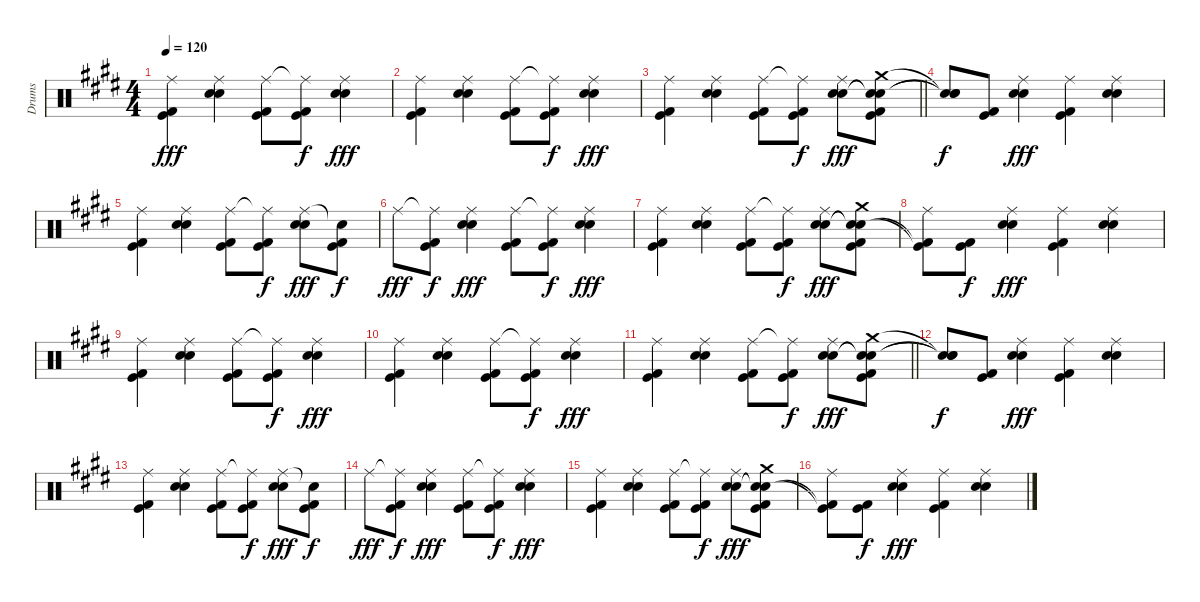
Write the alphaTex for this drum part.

\track ("Drums" "Drums") {instrument percussion}
\staff {score}
\articulation defaults
\ts (4 4)
\tempo 120
\clef neutral
\ks e
("Ride (middle)" "Kick (hit)" "Kick (hit) 2").4{dy fff} ("Ride (middle)" "Electric Snare (hit)" "Snare (hit) 2").4 ("Ride (middle)" "Kick (hit)" "Kick (hit) 2").8 ("Ride (middle)"{t} "Kick (hit)" "Kick (hit) 2").8{dy f} ("Ride (middle)" "Electric Snare (hit)" "Snare (hit) 2").4{dy fff} |
("Ride (middle)" "Kick (hit)" "Kick (hit) 2").4 ("Ride (middle)" "Electric Snare (hit)" "Snare (hit) 2").4 ("Ride (middle)" "Kick (hit)" "Kick (hit) 2").8 ("Ride (middle)"{t} "Kick (hit)" "Kick (hit) 2").8{dy f} ("Ride (middle)" "Electric Snare (hit)" "Snare (hit) 2").4{dy fff} |
\barLineRight lightlight
("Ride (middle)" "Kick (hit)" "Kick (hit) 2").4 ("Ride (middle)" "Electric Snare (hit)" "Snare (hit) 2").4 ("Ride (middle)" "Kick (hit)" "Kick (hit) 2").8 ("Ride (middle)"{t} "Kick (hit)" "Kick (hit) 2").8{dy f} ("Ride (middle)" "Electric Snare (hit)" "Snare (hit) 2").8{dy fff} ("Crash medium (hit)" "Snare (hit)"{t} "Snare (hit)"{t} "Kick (hit)" "Kick (hit) 2").8 |
("Snare (hit)"{t} "Snare (hit)"{t} "Snare (hit)"{t}).8{dy f volume 11} ("Kick (hit)" "Kick (hit) 2").8 ("Ride (middle)" "Electric Snare (hit)" "Snare (hit) 2").4{dy fff} ("Ride (middle)" "Kick (hit)" "Kick (hit) 2").4 ("Ride (middle)" "Electric Snare (hit)" "Snare (hit) 2").4 |
("Ride (middle)" "Kick (hit)" "Kick (hit) 2").4{volume 10} ("Ride (middle)" "Electric Snare (hit)" "Snare (hit) 2").4 ("Ride (middle)" "Kick (hit)" "Kick (hit) 2").8 ("Ride (middle)"{t} "Kick (hit)" "Kick (hit) 2").8{dy f} ("Ride (middle)" "Electric Snare (hit)" "Snare (hit) 2").8{dy fff} ("Snare (hit)"{t} "Kick (hit)" "Kick (hit) 2").8{dy f} |
"Ride (middle)".8{dy fff volume 9} ("Ride (middle)"{t} "Kick (hit)" "Kick (hit) 2").8{dy f} ("Ride (middle)" "Electric Snare (hit)" "Snare (hit) 2").4{dy fff} ("Ride (middle)" "Kick (hit)" "Kick (hit) 2").8 ("Ride (middle)"{t} "Kick (hit)" "Kick (hit) 2").8{dy f} ("Ride (middle)" "Electric Snare (hit)" "Snare (hit) 2").4{dy fff} |
("Ride (middle)" "Kick (hit)" "Kick (hit) 2").4{volume 8} ("Ride (middle)" "Electric Snare (hit)" "Snare (hit) 2").4 ("Ride (middle)" "Kick (hit)" "Kick (hit) 2").8 ("Ride (middle)"{t} "Kick (hit)" "Kick (hit) 2").8{dy f} ("Ride (middle)" "Electric Snare (hit)" "Snare (hit) 2").8{dy fff} ("Crash medium (hit)" "Snare (hit)"{t} "Snare (hit)"{t} "Kick (hit)" "Kick (hit) 2").8 |
("Ride (middle)" "Kick (hit)"{t} "Kick (hit) 2"{t}).8{volume 7} ("Kick (hit)" "Kick (hit) 2").8{dy f} ("Ride (middle)" "Electric Snare (hit)" "Snare (hit) 2").4{dy fff} ("Ride (middle)" "Kick (hit)" "Kick (hit) 2").4 ("Ride (middle)" "Electric Snare (hit)" "Snare (hit) 2").4 |
("Ride (middle)" "Kick (hit)" "Kick (hit) 2").4{volume 6} ("Ride (middle)" "Electric Snare (hit)" "Snare (hit) 2").4 ("Ride (middle)" "Kick (hit)" "Kick (hit) 2").8 ("Ride (middle)"{t} "Kick (hit)" "Kick (hit) 2").8{dy f} ("Ride (middle)" "Electric Snare (hit)" "Snare (hit) 2").4{dy fff} |
("Ride (middle)" "Kick (hit)" "Kick (hit) 2").4{volume 5} ("Ride (middle)" "Electric Snare (hit)" "Snare (hit) 2").4 ("Ride (middle)" "Kick (hit)" "Kick (hit) 2").8 ("Ride (middle)"{t} "Kick (hit)" "Kick (hit) 2").8{dy f} ("Ride (middle)" "Electric Snare (hit)" "Snare (hit) 2").4{dy fff} |
\barLineRight lightlight
("Ride (middle)" "Kick (hit)" "Kick (hit) 2").4{volume 4} ("Ride (middle)" "Electric Snare (hit)" "Snare (hit) 2").4 ("Ride (middle)" "Kick (hit)" "Kick (hit) 2").8 ("Ride (middle)"{t} "Kick (hit)" "Kick (hit) 2").8{dy f} ("Ride (middle)" "Electric Snare (hit)" "Snare (hit) 2").8{dy fff} ("Crash medium (hit)" "Snare (hit)"{t} "Snare (hit)"{t} "Kick (hit)" "Kick (hit) 2").8 |
("Snare (hit)"{t} "Snare (hit)"{t} "Snare (hit)"{t}).8{dy f volume 3} ("Kick (hit)" "Kick (hit) 2").8 ("Ride (middle)" "Electric Snare (hit)" "Snare (hit) 2").4{dy fff} ("Ride (middle)" "Kick (hit)" "Kick (hit) 2").4 ("Ride (middle)" "Electric Snare (hit)" "Snare (hit) 2").4 |
("Ride (middle)" "Kick (hit)" "Kick (hit) 2").4 ("Ride (middle)" "Electric Snare (hit)" "Snare (hit) 2").4 ("Ride (middle)" "Kick (hit)" "Kick (hit) 2").8 ("Ride (middle)"{t} "Kick (hit)" "Kick (hit) 2").8{dy f} ("Ride (middle)" "Electric Snare (hit)" "Snare (hit) 2").8{dy fff} ("Snare (hit)"{t} "Kick (hit)" "Kick (hit) 2").8{dy f} |
"Ride (middle)".8{dy fff} ("Ride (middle)"{t} "Kick (hit)" "Kick (hit) 2").8{dy f} ("Ride (middle)" "Electric Snare (hit)" "Snare (hit) 2").4{dy fff} ("Ride (middle)" "Kick (hit)" "Kick (hit) 2").8 ("Ride (middle)"{t} "Kick (hit)" "Kick (hit) 2").8{dy f} ("Ride (middle)" "Electric Snare (hit)" "Snare (hit) 2").4{dy fff} |
("Ride (middle)" "Kick (hit)" "Kick (hit) 2").4{volume 2} ("Ride (middle)" "Electric Snare (hit)" "Snare (hit) 2").4 ("Ride (middle)" "Kick (hit)" "Kick (hit) 2").8 ("Ride (middle)"{t} "Kick (hit)" "Kick (hit) 2").8{dy f} ("Ride (middle)" "Electric Snare (hit)" "Snare (hit) 2").8{dy fff} ("Crash medium (hit)" "Snare (hit)"{t} "Snare (hit)"{t} "Kick (hit)" "Kick (hit) 2").8 |
("Ride (middle)" "Kick (hit)"{t} "Kick (hit) 2"{t}).8 ("Kick (hit)" "Kick (hit) 2").8{dy f} ("Ride (middle)" "Electric Snare (hit)" "Snare (hit) 2").4{dy fff} ("Ride (middle)" "Kick (hit)" "Kick (hit) 2").4 ("Ride (middle)" "Electric Snare (hit)" "Snare (hit) 2").4
